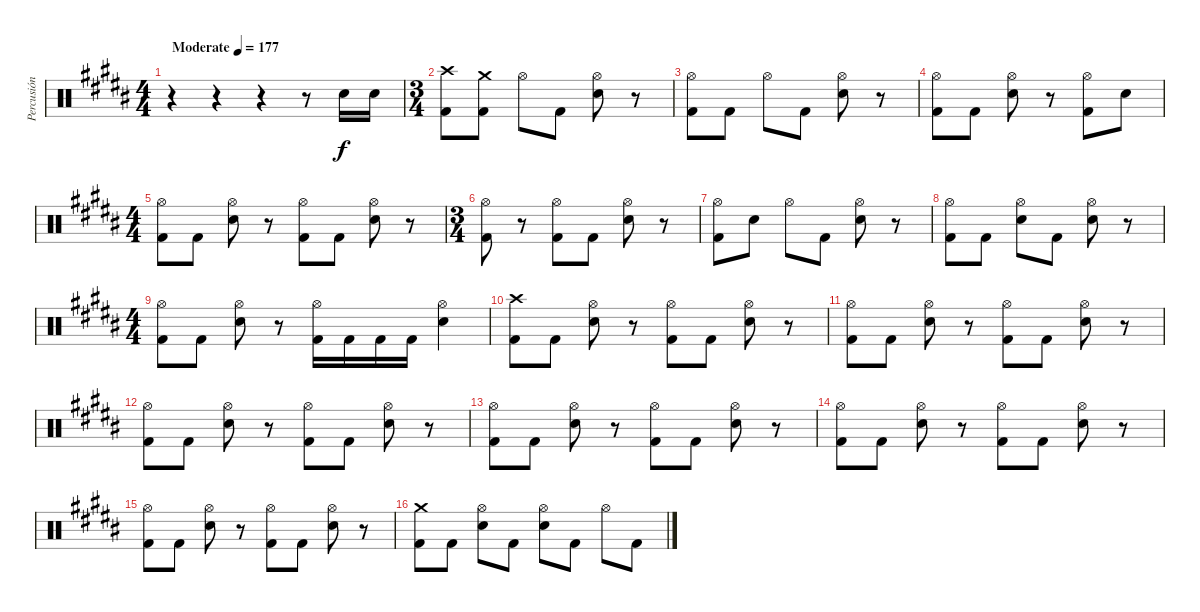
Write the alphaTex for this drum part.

\track ("Percusión" "Percusión") {instrument percussion}
\staff {score}
\articulation defaults
\ts (4 4)
\tempo (177 "Moderate")
\clef neutral
\ks g#minor
r.4{dy f} r.4 r.4 r.8 "Snare (hit) 2".16 "Snare (hit) 2".16 |
\ts (3 4)
("Kick (hit) 2" "Crash high (hit)").8 ("Kick (hit) 2" "Crash medium (hit)").8 "Hi-Hat (open)".8 "Kick (hit) 2".8 ("Snare (hit) 2" "Hi-Hat (open)").8 r.8 |
("Kick (hit) 2" "Hi-Hat (open)").8 "Kick (hit) 2".8 "Hi-Hat (open)".8 "Kick (hit) 2".8 ("Snare (hit) 2" "Hi-Hat (open)").8 r.8 |
("Kick (hit) 2" "Hi-Hat (open)").8 "Kick (hit) 2".8 ("Snare (hit) 2" "Hi-Hat (open)").8 r.8 ("Kick (hit) 2" "Hi-Hat (open)").8 "Snare (hit) 2".8 |
\ts (4 4)
("Kick (hit) 2" "Hi-Hat (open)").8 "Kick (hit) 2".8 ("Snare (hit) 2" "Hi-Hat (open)").8 r.8 ("Kick (hit) 2" "Hi-Hat (open)").8 "Kick (hit) 2".8 ("Snare (hit) 2" "Hi-Hat (open)").8 r.8 |
\ts (3 4)
("Kick (hit) 2" "Hi-Hat (open)").8 r.8 ("Kick (hit) 2" "Hi-Hat (open)").8 "Kick (hit) 2".8 ("Snare (hit) 2" "Hi-Hat (open)").8 r.8 |
("Kick (hit) 2" "Hi-Hat (open)").8 "Snare (hit) 2".8 "Hi-Hat (open)".8 "Kick (hit) 2".8 ("Snare (hit) 2" "Hi-Hat (open)").8 r.8 |
("Kick (hit) 2" "Hi-Hat (open)").8 "Kick (hit) 2".8 ("Snare (hit) 2" "Hi-Hat (open)").8 "Kick (hit) 2".8 ("Snare (hit) 2" "Hi-Hat (open)").8 r.8 |
\ts (4 4)
("Kick (hit) 2" "Hi-Hat (open)").8 "Kick (hit) 2".8 ("Snare (hit) 2" "Hi-Hat (open)").8 r.8 ("Kick (hit) 2" "Hi-Hat (open)").16 "Kick (hit) 2".16 "Kick (hit) 2".16 "Kick (hit) 2".16 ("Snare (hit) 2" "Hi-Hat (open)").4 |
("Kick (hit) 2" "Crash high (hit)").8 "Kick (hit) 2".8 ("Snare (hit) 2" "Hi-Hat (open)").8 r.8 ("Kick (hit) 2" "Hi-Hat (open)").8 "Kick (hit) 2".8 ("Snare (hit) 2" "Hi-Hat (open)").8 r.8 |
("Kick (hit) 2" "Hi-Hat (open)").8 "Kick (hit) 2".8 ("Snare (hit) 2" "Hi-Hat (open)").8 r.8 ("Kick (hit) 2" "Hi-Hat (open)").8 "Kick (hit) 2".8 ("Snare (hit) 2" "Hi-Hat (open)").8 r.8 |
("Kick (hit) 2" "Hi-Hat (open)").8 "Kick (hit) 2".8 ("Snare (hit) 2" "Hi-Hat (open)").8 r.8 ("Kick (hit) 2" "Hi-Hat (open)").8 "Kick (hit) 2".8 ("Snare (hit) 2" "Hi-Hat (open)").8 r.8 |
("Kick (hit) 2" "Hi-Hat (open)").8 "Kick (hit) 2".8 ("Snare (hit) 2" "Hi-Hat (open)").8 r.8 ("Kick (hit) 2" "Hi-Hat (open)").8 "Kick (hit) 2".8 ("Snare (hit) 2" "Hi-Hat (open)").8 r.8 |
("Kick (hit) 2" "Hi-Hat (open)").8 "Kick (hit) 2".8 ("Snare (hit) 2" "Hi-Hat (open)").8 r.8 ("Kick (hit) 2" "Hi-Hat (open)").8 "Kick (hit) 2".8 ("Snare (hit) 2" "Hi-Hat (open)").8 r.8 |
("Kick (hit) 2" "Hi-Hat (open)").8 "Kick (hit) 2".8 ("Snare (hit) 2" "Hi-Hat (open)").8 r.8 ("Kick (hit) 2" "Hi-Hat (open)").8 "Kick (hit) 2".8 ("Snare (hit) 2" "Hi-Hat (open)").8 r.8 |
("Kick (hit) 2" "Crash medium (hit)").8 "Kick (hit) 2".8 ("Snare (hit) 2" "Hi-Hat (open)").8 "Kick (hit) 2".8 ("Snare (hit) 2" "Hi-Hat (open)").8 "Kick (hit) 2".8 "Hi-Hat (open)".8 "Kick (hit) 2".8
